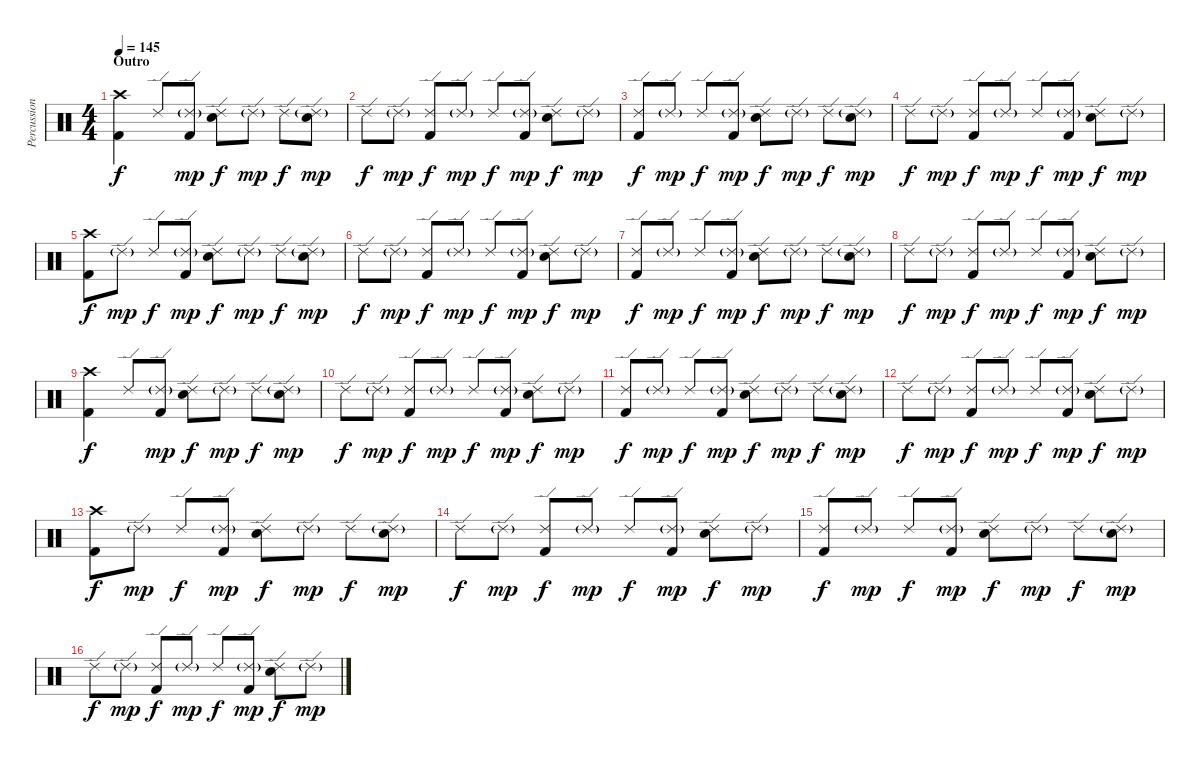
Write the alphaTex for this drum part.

\track ("Percussion" "Percussion") {instrument percussion}
\staff {score}
\articulation defaults
\ts (4 4)
\section ("" "Outro")
\tempo 145
\clef neutral
\ks c
("Kick (hit) 2" "Crash high (hit)").4{dy f} "Ride (edge) 2".8 ("Kick (hit) 2" "Ride (edge) 2"{g}).8{dy mp} ("Electric Snare (hit)" "Ride (edge) 2").8{dy f} "Ride (edge) 2"{g}.8{dy mp} "Ride (edge) 2".8{dy f} ("Electric Snare (hit)" "Ride (edge) 2"{g}).8{dy mp} |
"Ride (edge) 2".8{dy f} "Ride (edge) 2"{g}.8{dy mp} ("Kick (hit) 2" "Ride (edge) 2").8{dy f} "Ride (edge) 2"{g}.8{dy mp} "Ride (edge) 2".8{dy f} ("Kick (hit) 2" "Ride (edge) 2"{g}).8{dy mp} ("Electric Snare (hit)" "Ride (edge) 2").8{dy f} "Ride (edge) 2"{g}.8{dy mp} |
("Kick (hit) 2" "Ride (edge) 2").8{dy f} "Ride (edge) 2"{g}.8{dy mp} "Ride (edge) 2".8{dy f} ("Kick (hit) 2" "Ride (edge) 2"{g}).8{dy mp} ("Electric Snare (hit)" "Ride (edge) 2").8{dy f} "Ride (edge) 2"{g}.8{dy mp} "Ride (edge) 2".8{dy f} ("Electric Snare (hit)" "Ride (edge) 2"{g}).8{dy mp} |
"Ride (edge) 2".8{dy f} "Ride (edge) 2"{g}.8{dy mp} ("Kick (hit) 2" "Ride (edge) 2").8{dy f} "Ride (edge) 2"{g}.8{dy mp} "Ride (edge) 2".8{dy f} ("Kick (hit) 2" "Ride (edge) 2"{g}).8{dy mp} ("Electric Snare (hit)" "Ride (edge) 2").8{dy f} "Ride (edge) 2"{g}.8{dy mp} |
("Kick (hit) 2" "Crash high (hit)").8{dy f} "Ride (edge) 2"{g}.8{dy mp} "Ride (edge) 2".8{dy f} ("Kick (hit) 2" "Ride (edge) 2"{g}).8{dy mp} ("Electric Snare (hit)" "Ride (edge) 2").8{dy f} "Ride (edge) 2"{g}.8{dy mp} "Ride (edge) 2".8{dy f} ("Electric Snare (hit)" "Ride (edge) 2"{g}).8{dy mp} |
"Ride (edge) 2".8{dy f} "Ride (edge) 2"{g}.8{dy mp} ("Kick (hit) 2" "Ride (edge) 2").8{dy f} "Ride (edge) 2"{g}.8{dy mp} "Ride (edge) 2".8{dy f} ("Kick (hit) 2" "Ride (edge) 2"{g}).8{dy mp} ("Electric Snare (hit)" "Ride (edge) 2").8{dy f} "Ride (edge) 2"{g}.8{dy mp} |
("Kick (hit) 2" "Ride (edge) 2").8{dy f} "Ride (edge) 2"{g}.8{dy mp} "Ride (edge) 2".8{dy f} ("Kick (hit) 2" "Ride (edge) 2"{g}).8{dy mp} ("Electric Snare (hit)" "Ride (edge) 2").8{dy f} "Ride (edge) 2"{g}.8{dy mp} "Ride (edge) 2".8{dy f} ("Electric Snare (hit)" "Ride (edge) 2"{g}).8{dy mp} |
"Ride (edge) 2".8{dy f} "Ride (edge) 2"{g}.8{dy mp} ("Kick (hit) 2" "Ride (edge) 2").8{dy f} "Ride (edge) 2"{g}.8{dy mp} "Ride (edge) 2".8{dy f} ("Kick (hit) 2" "Ride (edge) 2"{g}).8{dy mp} ("Electric Snare (hit)" "Ride (edge) 2").8{dy f} "Ride (edge) 2"{g}.8{dy mp} |
("Kick (hit) 2" "Crash high (hit)").4{dy f} "Ride (edge) 2".8 ("Kick (hit) 2" "Ride (edge) 2"{g}).8{dy mp} ("Electric Snare (hit)" "Ride (edge) 2").8{dy f} "Ride (edge) 2"{g}.8{dy mp} "Ride (edge) 2".8{dy f} ("Electric Snare (hit)" "Ride (edge) 2"{g}).8{dy mp} |
"Ride (edge) 2".8{dy f} "Ride (edge) 2"{g}.8{dy mp} ("Kick (hit) 2" "Ride (edge) 2").8{dy f} "Ride (edge) 2"{g}.8{dy mp} "Ride (edge) 2".8{dy f} ("Kick (hit) 2" "Ride (edge) 2"{g}).8{dy mp} ("Electric Snare (hit)" "Ride (edge) 2").8{dy f} "Ride (edge) 2"{g}.8{dy mp} |
("Kick (hit) 2" "Ride (edge) 2").8{dy f} "Ride (edge) 2"{g}.8{dy mp} "Ride (edge) 2".8{dy f} ("Kick (hit) 2" "Ride (edge) 2"{g}).8{dy mp} ("Electric Snare (hit)" "Ride (edge) 2").8{dy f} "Ride (edge) 2"{g}.8{dy mp} "Ride (edge) 2".8{dy f} ("Electric Snare (hit)" "Ride (edge) 2"{g}).8{dy mp} |
"Ride (edge) 2".8{dy f} "Ride (edge) 2"{g}.8{dy mp} ("Kick (hit) 2" "Ride (edge) 2").8{dy f} "Ride (edge) 2"{g}.8{dy mp} "Ride (edge) 2".8{dy f} ("Kick (hit) 2" "Ride (edge) 2"{g}).8{dy mp} ("Electric Snare (hit)" "Ride (edge) 2").8{dy f} "Ride (edge) 2"{g}.8{dy mp} |
("Kick (hit) 2" "Crash high (hit)").8{dy f} "Ride (edge) 2"{g}.8{dy mp} "Ride (edge) 2".8{dy f} ("Kick (hit) 2" "Ride (edge) 2"{g}).8{dy mp} ("Electric Snare (hit)" "Ride (edge) 2").8{dy f} "Ride (edge) 2"{g}.8{dy mp} "Ride (edge) 2".8{dy f} ("Electric Snare (hit)" "Ride (edge) 2"{g}).8{dy mp} |
"Ride (edge) 2".8{dy f} "Ride (edge) 2"{g}.8{dy mp} ("Kick (hit) 2" "Ride (edge) 2").8{dy f} "Ride (edge) 2"{g}.8{dy mp} "Ride (edge) 2".8{dy f} ("Kick (hit) 2" "Ride (edge) 2"{g}).8{dy mp} ("Electric Snare (hit)" "Ride (edge) 2").8{dy f} "Ride (edge) 2"{g}.8{dy mp} |
("Kick (hit) 2" "Ride (edge) 2").8{dy f} "Ride (edge) 2"{g}.8{dy mp} "Ride (edge) 2".8{dy f} ("Kick (hit) 2" "Ride (edge) 2"{g}).8{dy mp} ("Electric Snare (hit)" "Ride (edge) 2").8{dy f} "Ride (edge) 2"{g}.8{dy mp} "Ride (edge) 2".8{dy f} ("Electric Snare (hit)" "Ride (edge) 2"{g}).8{dy mp} |
"Ride (edge) 2".8{dy f} "Ride (edge) 2"{g}.8{dy mp} ("Kick (hit) 2" "Ride (edge) 2").8{dy f} "Ride (edge) 2"{g}.8{dy mp} "Ride (edge) 2".8{dy f} ("Kick (hit) 2" "Ride (edge) 2"{g}).8{dy mp} ("Electric Snare (hit)" "Ride (edge) 2").8{dy f} "Ride (edge) 2"{g}.8{dy mp}
